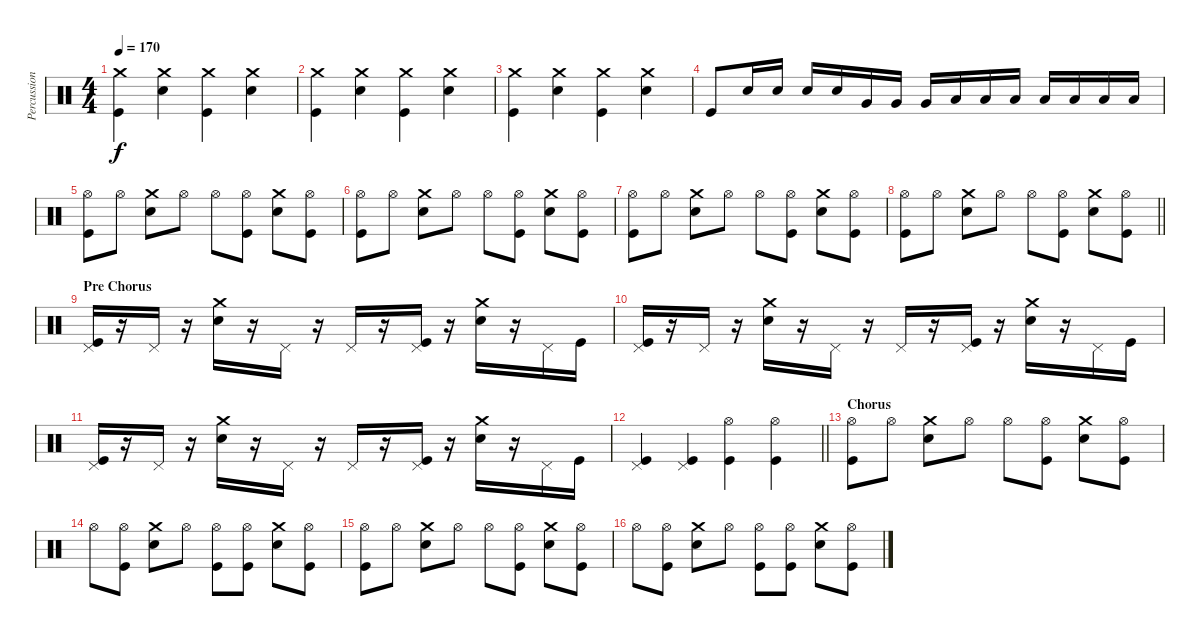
\track ("Percussion" "Percussion") {instrument percussion}
\staff {score}
\articulation defaults
\ts (4 4)
\tempo 170
\clef neutral
\ks c
("Crash medium (hit)" "Kick (hit)").4{dy f} ("Crash medium (hit)" "Snare (hit) 2").4 ("Crash medium (hit)" "Kick (hit)").4 ("Crash medium (hit)" "Snare (hit) 2").4 |
("Crash medium (hit)" "Kick (hit)").4 ("Crash medium (hit)" "Snare (hit) 2").4 ("Crash medium (hit)" "Kick (hit)").4 ("Crash medium (hit)" "Snare (hit) 2").4 |
("Crash medium (hit)" "Kick (hit)").4 ("Crash medium (hit)" "Snare (hit) 2").4 ("Crash medium (hit)" "Kick (hit)").4 ("Crash medium (hit)" "Snare (hit) 2").4 |
"Kick (hit)".8 "Snare (hit) 2".16 "Snare (hit) 2".16 "Snare (hit) 2".16 "Snare (hit) 2".16 "Very Low Tom (hit)".16 "Very Low Tom (hit)".16 "Very Low Tom (hit)".16 "Low Floor Tom (hit)".16 "Low Floor Tom (hit)".16 "Low Floor Tom (hit)".16 "Low Tom (hit)".16 "Low Tom (hit)".16 "Low Tom (hit)".16 "Low Tom (hit)".16 |
("Hi-Hat (open)" "Kick (hit)").8 "Hi-Hat (open)".8 ("Crash medium (hit)" "Snare (hit) 2").8 "Hi-Hat (open)".8 "Hi-Hat (open)".8 ("Hi-Hat (open)" "Kick (hit)").8 ("Crash medium (hit)" "Snare (hit) 2").8 ("Hi-Hat (open)" "Kick (hit)").8 |
("Hi-Hat (open)" "Kick (hit)").8 "Hi-Hat (open)".8 ("Crash medium (hit)" "Snare (hit) 2").8 "Hi-Hat (open)".8 "Hi-Hat (open)".8 ("Hi-Hat (open)" "Kick (hit)").8 ("Crash medium (hit)" "Snare (hit) 2").8 ("Hi-Hat (open)" "Kick (hit)").8 |
("Hi-Hat (open)" "Kick (hit)").8 "Hi-Hat (open)".8 ("Crash medium (hit)" "Snare (hit) 2").8 "Hi-Hat (open)".8 "Hi-Hat (open)".8 ("Hi-Hat (open)" "Kick (hit)").8 ("Crash medium (hit)" "Snare (hit) 2").8 ("Hi-Hat (open)" "Kick (hit)").8 |
\barLineRight lightlight
("Hi-Hat (open)" "Kick (hit)").8 "Hi-Hat (open)".8 ("Crash medium (hit)" "Snare (hit) 2").8 "Hi-Hat (open)".8 "Hi-Hat (open)".8 ("Hi-Hat (open)" "Kick (hit)").8 ("Crash medium (hit)" "Snare (hit) 2").8 ("Hi-Hat (open)" "Kick (hit)").8 |
\section ("" "Pre Chorus")
("Pedal Hi-Hat (hit)" "Kick (hit)").16 r.16 "Pedal Hi-Hat (hit)".16 r.16 ("Crash medium (hit)" "Snare (hit) 2").16 r.16 "Pedal Hi-Hat (hit)".16 r.16 "Pedal Hi-Hat (hit)".16 r.16 ("Pedal Hi-Hat (hit)" "Kick (hit)").16 r.16 ("Crash medium (hit)" "Snare (hit) 2").16 r.16 "Pedal Hi-Hat (hit)".16 "Kick (hit)".16 |
("Pedal Hi-Hat (hit)" "Kick (hit)").16 r.16 "Pedal Hi-Hat (hit)".16 r.16 ("Crash medium (hit)" "Snare (hit) 2").16 r.16 "Pedal Hi-Hat (hit)".16 r.16 "Pedal Hi-Hat (hit)".16 r.16 ("Pedal Hi-Hat (hit)" "Kick (hit)").16 r.16 ("Crash medium (hit)" "Snare (hit) 2").16 r.16 "Pedal Hi-Hat (hit)".16 "Kick (hit)".16 |
("Pedal Hi-Hat (hit)" "Kick (hit)").16 r.16 "Pedal Hi-Hat (hit)".16 r.16 ("Crash medium (hit)" "Snare (hit) 2").16 r.16 "Pedal Hi-Hat (hit)".16 r.16 "Pedal Hi-Hat (hit)".16 r.16 ("Pedal Hi-Hat (hit)" "Kick (hit)").16 r.16 ("Crash medium (hit)" "Snare (hit) 2").16 r.16 "Pedal Hi-Hat (hit)".16 "Kick (hit)".16 |
\barLineRight lightlight
("Pedal Hi-Hat (hit)" "Kick (hit)").4 ("Pedal Hi-Hat (hit)" "Kick (hit)").4 ("Hi-Hat (open)" "Kick (hit)").4 ("Hi-Hat (open)" "Kick (hit)").4 |
\section ("" "Chorus")
("Hi-Hat (open)" "Kick (hit)").8 "Hi-Hat (open)".8 ("Crash medium (hit)" "Snare (hit) 2").8 "Hi-Hat (open)".8 "Hi-Hat (open)".8 ("Hi-Hat (open)" "Kick (hit)").8 ("Crash medium (hit)" "Snare (hit) 2").8 ("Hi-Hat (open)" "Kick (hit)").8 |
"Hi-Hat (open)".8 ("Hi-Hat (open)" "Kick (hit)").8 ("Crash medium (hit)" "Snare (hit) 2").8 "Hi-Hat (open)".8 ("Hi-Hat (open)" "Kick (hit)").8 ("Hi-Hat (open)" "Kick (hit)").8 ("Crash medium (hit)" "Snare (hit) 2").8 ("Hi-Hat (open)" "Kick (hit)").8 |
("Hi-Hat (open)" "Kick (hit)").8 "Hi-Hat (open)".8 ("Crash medium (hit)" "Snare (hit) 2").8 "Hi-Hat (open)".8 "Hi-Hat (open)".8 ("Hi-Hat (open)" "Kick (hit)").8 ("Crash medium (hit)" "Snare (hit) 2").8 ("Hi-Hat (open)" "Kick (hit)").8 |
"Hi-Hat (open)".8 ("Hi-Hat (open)" "Kick (hit)").8 ("Crash medium (hit)" "Snare (hit) 2").8 "Hi-Hat (open)".8 ("Hi-Hat (open)" "Kick (hit)").8 ("Hi-Hat (open)" "Kick (hit)").8 ("Crash medium (hit)" "Snare (hit) 2").8 ("Hi-Hat (open)" "Kick (hit)").8
